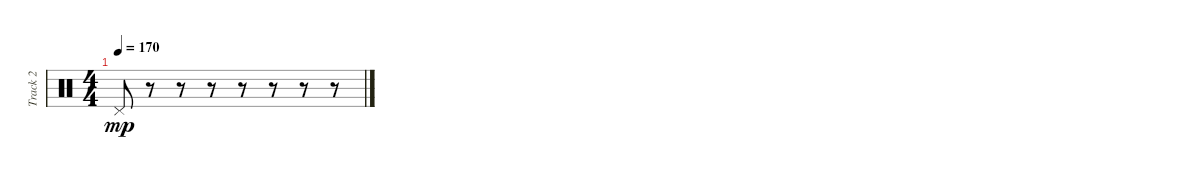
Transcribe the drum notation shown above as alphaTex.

\track ("Track 2" "Track 2") {instrument percussion}
\staff {score}
\articulation defaults
\ts (4 4)
\tempo 170
\clef neutral
\ks c "Pedal Hi-Hat (hit)".8{dy mp}
r.8 r.8 r.8 r.8 r.8 r.8 r.8
